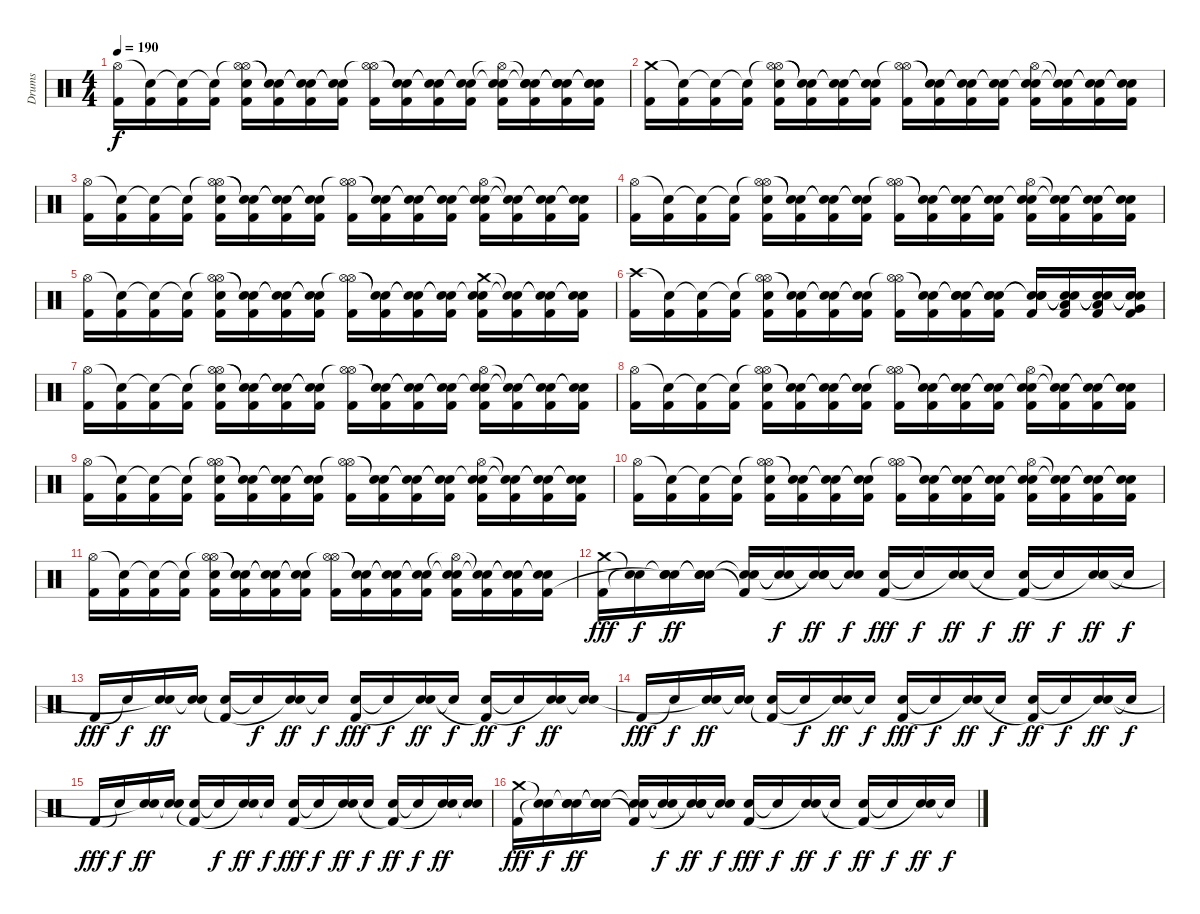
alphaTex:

\track ("Drums" "Drums") {instrument percussion}
\staff {score}
\articulation defaults
\ts (4 4)
\tempo 190
\clef neutral
\ks c
("Hi-Hat (open)" "Kick (hit) 2").16{dy f} ("Snare (hit)"{t} "Kick (hit) 2").16 ("Snare (hit)"{t} "Kick (hit) 2").16 ("Snare (hit)"{t} "Kick (hit) 2").16 ("Hi-Hat (open)"{t} "Hi-Hat (open)" "Electric Snare (hit)" "Kick (hit) 2").16 ("Snare (hit)"{t} "Snare (hit)"{t} "Kick (hit) 2").16 ("Snare (hit)"{t} "Snare (hit)"{t} "Kick (hit) 2").16 ("Snare (hit)"{t} "Snare (hit)"{t} "Kick (hit) 2").16 ("Hi-Hat (open)" "Hi-Hat (open)"{t} "Kick (hit) 2").16 ("Snare (hit)"{t} "Snare (hit)"{t} "Kick (hit) 2").16 ("Snare (hit)"{t} "Snare (hit)"{t} "Kick (hit) 2").16 ("Snare (hit)"{t} "Snare (hit)"{t} "Kick (hit) 2").16 ("Snare (hit)"{t} "Hi-Hat (open)"{t} "Electric Snare (hit)" "Kick (hit) 2").16 ("Snare (hit)"{t} "Snare (hit)"{t} "Electric Snare (hit)" "Kick (hit) 2").16 ("Snare (hit)"{t} "Snare (hit)"{t} "Electric Snare (hit)" "Kick (hit) 2").16 ("Snare (hit)"{t} "Snare (hit)"{t} "Electric Snare (hit)" "Kick (hit) 2").16 |
("Crash medium (hit)" "Kick (hit) 2").16 ("Snare (hit)"{t} "Kick (hit) 2").16 ("Snare (hit)"{t} "Kick (hit) 2").16 ("Snare (hit)"{t} "Kick (hit) 2").16 ("Hi-Hat (open)"{t} "Hi-Hat (open)" "Electric Snare (hit)" "Kick (hit) 2").16 ("Snare (hit)"{t} "Snare (hit)"{t} "Kick (hit) 2").16 ("Snare (hit)"{t} "Snare (hit)"{t} "Kick (hit) 2").16 ("Snare (hit)"{t} "Snare (hit)"{t} "Kick (hit) 2").16 ("Hi-Hat (open)" "Hi-Hat (open)"{t} "Kick (hit) 2").16 ("Snare (hit)"{t} "Snare (hit)"{t} "Kick (hit) 2").16 ("Snare (hit)"{t} "Snare (hit)"{t} "Kick (hit) 2").16 ("Snare (hit)"{t} "Snare (hit)"{t} "Kick (hit) 2").16 ("Snare (hit)"{t} "Hi-Hat (open)" "Electric Snare (hit)" "Kick (hit) 2").16 ("Snare (hit)"{t} "Snare (hit)"{t} "Kick (hit) 2").16 ("Snare (hit)"{t} "Snare (hit)"{t} "Kick (hit) 2").16 ("Snare (hit)"{t} "Snare (hit)"{t} "Kick (hit) 2").16 |
("Hi-Hat (open)" "Kick (hit) 2").16 ("Snare (hit)"{t} "Kick (hit) 2").16 ("Snare (hit)"{t} "Kick (hit) 2").16 ("Snare (hit)"{t} "Kick (hit) 2").16 ("Hi-Hat (open)"{t} "Hi-Hat (open)" "Electric Snare (hit)" "Kick (hit) 2").16 ("Snare (hit)"{t} "Snare (hit)"{t} "Kick (hit) 2").16 ("Snare (hit)"{t} "Snare (hit)"{t} "Kick (hit) 2").16 ("Snare (hit)"{t} "Snare (hit)"{t} "Kick (hit) 2").16 ("Hi-Hat (open)" "Hi-Hat (open)"{t} "Kick (hit) 2").16 ("Snare (hit)"{t} "Snare (hit)"{t} "Kick (hit) 2").16 ("Snare (hit)"{t} "Snare (hit)"{t} "Kick (hit) 2").16 ("Snare (hit)"{t} "Snare (hit)"{t} "Kick (hit) 2").16 ("Snare (hit)"{t} "Hi-Hat (open)" "Electric Snare (hit)" "Kick (hit) 2").16 ("Snare (hit)"{t} "Snare (hit)"{t} "Kick (hit) 2").16 ("Snare (hit)"{t} "Snare (hit)"{t} "Kick (hit) 2").16 ("Snare (hit)"{t} "Snare (hit)"{t} "Kick (hit) 2").16 |
("Hi-Hat (open)" "Kick (hit) 2").16 ("Snare (hit)"{t} "Kick (hit) 2").16 ("Snare (hit)"{t} "Kick (hit) 2").16 ("Snare (hit)"{t} "Kick (hit) 2").16 ("Hi-Hat (open)"{t} "Hi-Hat (open)" "Electric Snare (hit)" "Kick (hit) 2").16 ("Snare (hit)"{t} "Snare (hit)"{t} "Kick (hit) 2").16 ("Snare (hit)"{t} "Snare (hit)"{t} "Kick (hit) 2").16 ("Snare (hit)"{t} "Snare (hit)"{t} "Kick (hit) 2").16 ("Hi-Hat (open)" "Hi-Hat (open)"{t} "Kick (hit) 2").16 ("Snare (hit)"{t} "Snare (hit)"{t} "Kick (hit) 2").16 ("Snare (hit)"{t} "Snare (hit)"{t} "Kick (hit) 2").16 ("Snare (hit)"{t} "Snare (hit)"{t} "Kick (hit) 2").16 ("Snare (hit)"{t} "Hi-Hat (open)" "Electric Snare (hit)" "Kick (hit) 2").16 ("Snare (hit)"{t} "Snare (hit)"{t} "Kick (hit) 2").16 ("Snare (hit)"{t} "Snare (hit)"{t} "Kick (hit) 2").16 ("Snare (hit)"{t} "Snare (hit)"{t} "Kick (hit) 2").16 |
("Hi-Hat (open)" "Kick (hit) 2").16 ("Snare (hit)"{t} "Kick (hit) 2").16 ("Snare (hit)"{t} "Kick (hit) 2").16 ("Snare (hit)"{t} "Kick (hit) 2").16 ("Hi-Hat (open)"{t} "Hi-Hat (open)" "Electric Snare (hit)" "Kick (hit) 2").16 ("Snare (hit)"{t} "Snare (hit)"{t} "Kick (hit) 2").16 ("Snare (hit)"{t} "Snare (hit)"{t} "Kick (hit) 2").16 ("Snare (hit)"{t} "Snare (hit)"{t} "Kick (hit) 2").16 ("Hi-Hat (open)" "Hi-Hat (open)"{t} "Kick (hit) 2").16 ("Snare (hit)"{t} "Snare (hit)"{t} "Kick (hit) 2").16 ("Snare (hit)"{t} "Snare (hit)"{t} "Kick (hit) 2").16 ("Snare (hit)"{t} "Snare (hit)"{t} "Kick (hit) 2").16 ("Crash medium (hit)" "Snare (hit)"{t} "Electric Snare (hit)" "Kick (hit) 2").16 ("Snare (hit)"{t} "Snare (hit)"{t} "Kick (hit) 2").16 ("Snare (hit)"{t} "Snare (hit)"{t} "Kick (hit) 2").16 ("Snare (hit)"{t} "Snare (hit)"{t} "Kick (hit) 2").16 |
("Crash high (hit)" "Kick (hit) 2").16 ("Snare (hit)"{t} "Kick (hit) 2").16 ("Snare (hit)"{t} "Kick (hit) 2").16 ("Snare (hit)"{t} "Kick (hit) 2").16 ("Hi-Hat (open)"{t} "Hi-Hat (open)" "Electric Snare (hit)" "Kick (hit) 2").16 ("Snare (hit)"{t} "Snare (hit)"{t} "Kick (hit) 2").16 ("Snare (hit)"{t} "Snare (hit)"{t} "Kick (hit) 2").16 ("Snare (hit)"{t} "Snare (hit)"{t} "Kick (hit) 2").16 ("Hi-Hat (open)" "Hi-Hat (open)"{t} "Kick (hit) 2").16 ("Snare (hit)"{t} "Snare (hit)"{t} "Kick (hit) 2").16 ("Snare (hit)"{t} "Snare (hit)"{t} "Electric Snare (hit)" "Kick (hit) 2").16 ("Snare (hit)"{t} "Snare (hit)"{t} "Electric Snare (hit)" "Kick (hit) 2").16 ("Snare (hit)"{t} "Snare (hit)"{t} "Electric Snare (hit)" "Kick (hit) 2").16 ("Snare (hit)"{t} "Snare (hit)"{t} "Low Tom (hit)" "Kick (hit) 2").16 ("Snare (hit)"{t} "Snare (hit)"{t} "Low Tom (hit)" "Kick (hit) 2").16 ("Snare (hit)"{t} "Snare (hit)"{t} "Very Low Tom (hit)" "Kick (hit) 2").16 |
("Hi-Hat (open)" "Kick (hit) 2").16 ("Snare (hit)"{t} "Kick (hit) 2").16 ("Snare (hit)"{t} "Kick (hit) 2").16 ("Snare (hit)"{t} "Kick (hit) 2").16 ("Hi-Hat (open)"{t} "Hi-Hat (open)" "Electric Snare (hit)" "Kick (hit) 2").16 ("Snare (hit)"{t} "Snare (hit)"{t} "Kick (hit) 2").16 ("Snare (hit)"{t} "Snare (hit)"{t} "Kick (hit) 2").16 ("Snare (hit)"{t} "Snare (hit)"{t} "Kick (hit) 2").16 ("Hi-Hat (open)" "Hi-Hat (open)"{t} "Kick (hit) 2").16 ("Snare (hit)"{t} "Snare (hit)"{t} "Kick (hit) 2").16 ("Snare (hit)"{t} "Snare (hit)"{t} "Kick (hit) 2").16 ("Snare (hit)"{t} "Snare (hit)"{t} "Kick (hit) 2").16 ("Snare (hit)"{t} "Hi-Hat (open)" "Electric Snare (hit)" "Kick (hit) 2").16 ("Snare (hit)"{t} "Snare (hit)"{t} "Kick (hit) 2").16 ("Snare (hit)"{t} "Snare (hit)"{t} "Kick (hit) 2").16 ("Snare (hit)"{t} "Snare (hit)"{t} "Kick (hit) 2").16 |
("Hi-Hat (open)" "Kick (hit) 2").16 ("Snare (hit)"{t} "Kick (hit) 2").16 ("Snare (hit)"{t} "Kick (hit) 2").16 ("Snare (hit)"{t} "Kick (hit) 2").16 ("Hi-Hat (open)"{t} "Hi-Hat (open)" "Electric Snare (hit)" "Kick (hit) 2").16 ("Snare (hit)"{t} "Snare (hit)"{t} "Kick (hit) 2").16 ("Snare (hit)"{t} "Snare (hit)"{t} "Kick (hit) 2").16 ("Snare (hit)"{t} "Snare (hit)"{t} "Kick (hit) 2").16 ("Hi-Hat (open)" "Hi-Hat (open)"{t} "Kick (hit) 2").16 ("Snare (hit)"{t} "Snare (hit)"{t} "Kick (hit) 2").16 ("Snare (hit)"{t} "Snare (hit)"{t} "Kick (hit) 2").16 ("Snare (hit)"{t} "Snare (hit)"{t} "Kick (hit) 2").16 ("Snare (hit)"{t} "Hi-Hat (open)" "Electric Snare (hit)" "Kick (hit) 2").16 ("Snare (hit)"{t} "Snare (hit)"{t} "Kick (hit) 2").16 ("Snare (hit)"{t} "Snare (hit)"{t} "Kick (hit) 2").16 ("Snare (hit)"{t} "Snare (hit)"{t} "Kick (hit) 2").16 |
("Hi-Hat (open)" "Kick (hit) 2").16 ("Snare (hit)"{t} "Kick (hit) 2").16 ("Snare (hit)"{t} "Kick (hit) 2").16 ("Snare (hit)"{t} "Kick (hit) 2").16 ("Hi-Hat (open)"{t} "Hi-Hat (open)" "Electric Snare (hit)" "Kick (hit) 2").16 ("Snare (hit)"{t} "Snare (hit)"{t} "Kick (hit) 2").16 ("Snare (hit)"{t} "Snare (hit)"{t} "Kick (hit) 2").16 ("Snare (hit)"{t} "Snare (hit)"{t} "Kick (hit) 2").16 ("Hi-Hat (open)" "Hi-Hat (open)"{t} "Kick (hit) 2").16 ("Snare (hit)"{t} "Snare (hit)"{t} "Kick (hit) 2").16 ("Snare (hit)"{t} "Snare (hit)"{t} "Kick (hit) 2").16 ("Snare (hit)"{t} "Snare (hit)"{t} "Kick (hit) 2").16 ("Snare (hit)"{t} "Hi-Hat (open)" "Electric Snare (hit)" "Kick (hit) 2").16 ("Snare (hit)"{t} "Snare (hit)"{t} "Kick (hit) 2").16 ("Snare (hit)"{t} "Snare (hit)"{t} "Kick (hit) 2").16 ("Snare (hit)"{t} "Snare (hit)"{t} "Kick (hit) 2").16 |
("Hi-Hat (open)" "Kick (hit) 2").16 ("Snare (hit)"{t} "Kick (hit) 2").16 ("Snare (hit)"{t} "Kick (hit) 2").16 ("Snare (hit)"{t} "Kick (hit) 2").16 ("Hi-Hat (open)"{t} "Hi-Hat (open)" "Electric Snare (hit)" "Kick (hit) 2").16 ("Snare (hit)"{t} "Snare (hit)"{t} "Kick (hit) 2").16 ("Snare (hit)"{t} "Snare (hit)"{t} "Kick (hit) 2").16 ("Snare (hit)"{t} "Snare (hit)"{t} "Kick (hit) 2").16 ("Hi-Hat (open)" "Hi-Hat (open)"{t} "Kick (hit) 2").16 ("Snare (hit)"{t} "Snare (hit)"{t} "Kick (hit) 2").16 ("Snare (hit)"{t} "Snare (hit)"{t} "Kick (hit) 2").16 ("Snare (hit)"{t} "Snare (hit)"{t} "Kick (hit) 2").16 ("Snare (hit)"{t} "Hi-Hat (open)" "Electric Snare (hit)" "Kick (hit) 2").16 ("Snare (hit)"{t} "Snare (hit)"{t} "Kick (hit) 2").16 ("Snare (hit)"{t} "Snare (hit)"{t} "Kick (hit) 2").16 ("Snare (hit)"{t} "Snare (hit)"{t} "Kick (hit) 2").16 |
("Hi-Hat (open)" "Kick (hit) 2").16 ("Snare (hit)"{t} "Kick (hit) 2").16 ("Snare (hit)"{t} "Kick (hit) 2").16 ("Snare (hit)"{t} "Kick (hit) 2").16 ("Hi-Hat (open)"{t} "Hi-Hat (open)" "Electric Snare (hit)" "Kick (hit) 2").16 ("Snare (hit)"{t} "Snare (hit)"{t} "Kick (hit) 2").16 ("Snare (hit)"{t} "Snare (hit)"{t} "Kick (hit) 2").16 ("Snare (hit)"{t} "Snare (hit)"{t} "Kick (hit) 2").16 ("Hi-Hat (open)" "Hi-Hat (open)"{t} "Kick (hit) 2").16 ("Snare (hit)"{t} "Snare (hit)"{t} "Kick (hit) 2").16 ("Snare (hit)"{t} "Snare (hit)"{t} "Kick (hit) 2").16 ("Snare (hit)"{t} "Snare (hit)"{t} "Kick (hit) 2").16 ("Snare (hit)"{t} "Hi-Hat (open)"{t} "Electric Snare (hit)" "Kick (hit) 2").16 ("Snare (hit)"{t} "Snare (hit)"{t} "Kick (hit) 2").16 ("Snare (hit)"{t} "Snare (hit)"{t} "Kick (hit) 2").16 ("Snare (hit)"{t} "Snare (hit)"{t} "Kick (hit) 2").16 |
("Crash medium (hit)" "Kick (hit) 2").16{dy fff} ("Snare (hit)"{t} "Snare (hit)"{t}).16{dy f} ("Snare (hit)"{t} "Electric Snare (hit)" "Snare (hit)"{t}).16{dy ff} ("Snare (hit)"{t} "Electric Snare (hit)" "Snare (hit)"{t}).16 ("Snare (hit)"{t} "Electric Snare (hit)" "Kick (hit) 2"{t}).16 ("Snare (hit)"{t} "Snare (hit)"{t}).16{dy f} ("Snare (hit)"{t} "Electric Snare (hit)" "Snare (hit)"{t}).16{dy ff} ("Snare (hit)"{t} "Snare (hit)"{t}).16{dy f} ("Electric Snare (hit)" "Kick (hit) 2").16{dy fff} "Snare (hit)"{t}.16{dy f} ("Electric Snare (hit)" "Snare (hit)"{t}).16{dy ff} "Snare (hit)"{t}.16{dy f} ("Electric Snare (hit)" "Kick (hit) 2"{t}).16{dy ff} "Snare (hit)"{t}.16{dy f} ("Electric Snare (hit)" "Snare (hit)"{t}).16{dy ff} "Snare (hit)"{t}.16{dy f} |
"Kick (hit) 2".16{dy fff} "Snare (hit)"{t}.16{dy f} ("Electric Snare (hit)" "Snare (hit)"{t}).16{dy ff} ("Electric Snare (hit)" "Snare (hit)"{t}).16 ("Electric Snare (hit)" "Kick (hit) 2"{t}).16 "Snare (hit)"{t}.16{dy f} ("Electric Snare (hit)" "Snare (hit)"{t}).16{dy ff} "Snare (hit)"{t}.16{dy f} ("Electric Snare (hit)" "Kick (hit) 2").16{dy fff} "Snare (hit)"{t}.16{dy f} ("Electric Snare (hit)" "Snare (hit)"{t}).16{dy ff} "Snare (hit)"{t}.16{dy f} ("Electric Snare (hit)" "Kick (hit) 2"{t}).16{dy ff} "Snare (hit)"{t}.16{dy f} ("Electric Snare (hit)" "Snare (hit)"{t}).16{dy ff} ("Electric Snare (hit)" "Snare (hit)"{t}).16 |
"Kick (hit) 2".16{dy fff} "Snare (hit)"{t}.16{dy f} ("Electric Snare (hit)" "Snare (hit)"{t}).16{dy ff} ("Electric Snare (hit)" "Snare (hit)"{t}).16 ("Electric Snare (hit)" "Kick (hit) 2"{t}).16 "Snare (hit)"{t}.16{dy f} ("Electric Snare (hit)" "Snare (hit)"{t}).16{dy ff} "Snare (hit)"{t}.16{dy f} ("Electric Snare (hit)" "Kick (hit) 2").16{dy fff} "Snare (hit)"{t}.16{dy f} ("Electric Snare (hit)" "Snare (hit)"{t}).16{dy ff} "Snare (hit)"{t}.16{dy f} ("Electric Snare (hit)" "Kick (hit) 2"{t}).16{dy ff} "Snare (hit)"{t}.16{dy f} ("Electric Snare (hit)" "Snare (hit)"{t}).16{dy ff} "Snare (hit)"{t}.16{dy f} |
"Kick (hit) 2".16{dy fff} "Snare (hit)"{t}.16{dy f} ("Electric Snare (hit)" "Snare (hit)"{t}).16{dy ff} ("Electric Snare (hit)" "Snare (hit)"{t}).16 ("Electric Snare (hit)" "Kick (hit) 2"{t}).16 "Snare (hit)"{t}.16{dy f} ("Electric Snare (hit)" "Snare (hit)"{t}).16{dy ff} "Snare (hit)"{t}.16{dy f} ("Electric Snare (hit)" "Kick (hit) 2").16{dy fff} "Snare (hit)"{t}.16{dy f} ("Electric Snare (hit)" "Snare (hit)"{t}).16{dy ff} "Snare (hit)"{t}.16{dy f} ("Electric Snare (hit)" "Kick (hit) 2"{t}).16{dy ff} "Snare (hit)"{t}.16{dy f} ("Electric Snare (hit)" "Snare (hit)"{t}).16{dy ff} ("Electric Snare (hit)" "Snare (hit)"{t}).16 |
("Crash medium (hit)" "Kick (hit) 2").16{dy fff} ("Snare (hit)"{t} "Snare (hit)"{t}).16{dy f} ("Snare (hit)"{t} "Electric Snare (hit)" "Snare (hit)").16{dy ff} ("Snare (hit)"{t} "Electric Snare (hit)" "Snare (hit)"{t}).16 ("Snare (hit)"{t} "Electric Snare (hit)" "Kick (hit) 2"{t}).16 ("Snare (hit)"{t} "Snare (hit)"{t}).16{dy f} ("Snare (hit)"{t} "Electric Snare (hit)" "Snare (hit)"{t}).16{dy ff} ("Snare (hit)"{t} "Snare (hit)"{t}).16{dy f} ("Electric Snare (hit)" "Kick (hit) 2").16{dy fff} "Snare (hit)"{t}.16{dy f} ("Electric Snare (hit)" "Snare (hit)"{t}).16{dy ff} "Snare (hit)"{t}.16{dy f} ("Electric Snare (hit)" "Kick (hit) 2"{t}).16{dy ff} "Snare (hit)"{t}.16{dy f} ("Electric Snare (hit)" "Snare (hit)"{t}).16{dy ff} "Snare (hit)"{t}.16{dy f}
